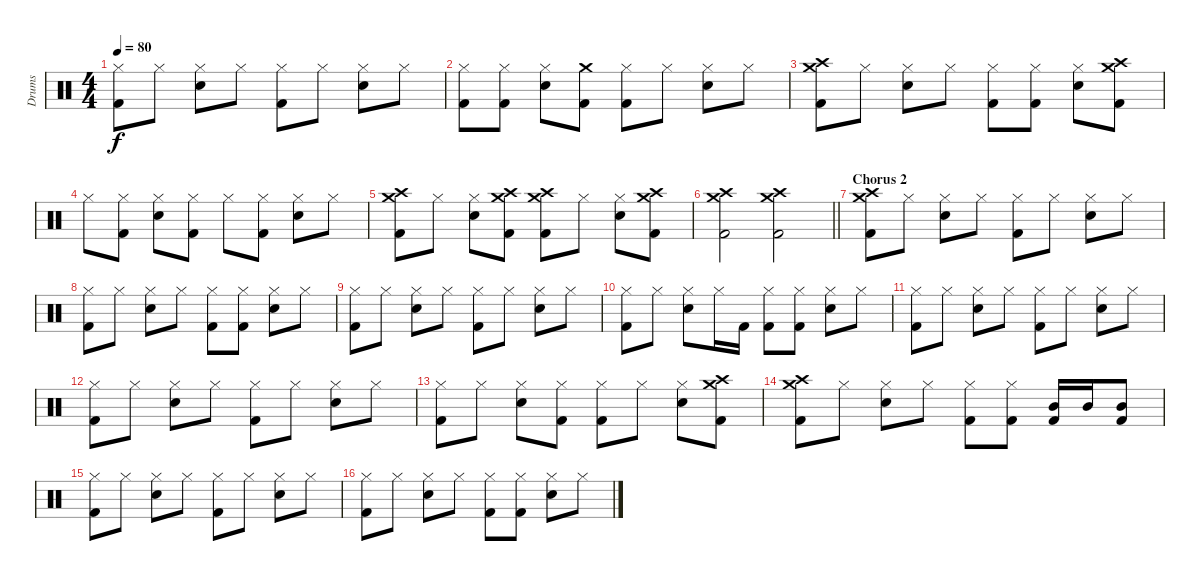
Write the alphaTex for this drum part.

\track ("Drums" "Drums") {instrument percussion}
\staff {score}
\articulation defaults
\ts (4 4)
\tempo 80
\clef neutral
\ks c
("Hi-Hat (closed)" "Kick (hit) 2").8{dy f} "Hi-Hat (closed)".8 ("Hi-Hat (closed)" "Snare (hit) 2").8 "Hi-Hat (closed)".8 ("Hi-Hat (closed)" "Kick (hit) 2").8 "Hi-Hat (closed)".8 ("Hi-Hat (closed)" "Snare (hit) 2").8 "Hi-Hat (closed)".8 |
("Hi-Hat (closed)" "Kick (hit) 2").8 ("Hi-Hat (closed)" "Kick (hit) 2").8 ("Hi-Hat (closed)" "Snare (hit) 2").8 ("Crash medium (hit)" "Kick (hit) 2").8 ("Hi-Hat (closed)" "Kick (hit) 2").8 "Hi-Hat (closed)".8 ("Hi-Hat (closed)" "Snare (hit) 2").8 "Hi-Hat (closed)".8 |
("Crash medium (hit)" "Crash high (hit)" "Kick (hit) 2").8 "Hi-Hat (closed)".8 ("Hi-Hat (closed)" "Snare (hit) 2").8 "Hi-Hat (closed)".8 ("Hi-Hat (closed)" "Kick (hit) 2").8 ("Hi-Hat (closed)" "Kick (hit) 2").8 ("Hi-Hat (closed)" "Snare (hit) 2").8 ("Crash medium (hit)" "Crash high (hit)" "Kick (hit) 2").8 |
"Hi-Hat (closed)".8 ("Hi-Hat (closed)" "Kick (hit) 2").8 ("Hi-Hat (closed)" "Snare (hit) 2").8 ("Hi-Hat (closed)" "Kick (hit) 2").8 "Hi-Hat (closed)".8 ("Hi-Hat (closed)" "Kick (hit) 2").8 ("Hi-Hat (closed)" "Snare (hit) 2").8 "Hi-Hat (closed)".8 |
("Crash medium (hit)" "Crash high (hit)" "Kick (hit) 2").8 "Hi-Hat (closed)".8 ("Hi-Hat (closed)" "Snare (hit) 2").8 ("Crash medium (hit)" "Crash high (hit)" "Kick (hit) 2").8 ("Crash medium (hit)" "Crash high (hit)" "Kick (hit) 2").8 "Hi-Hat (closed)".8 ("Hi-Hat (closed)" "Snare (hit) 2").8 ("Crash medium (hit)" "Crash high (hit)" "Kick (hit) 2").8 |
\barLineRight lightlight
("Crash medium (hit)" "Crash high (hit)" "Kick (hit) 2").2 ("Crash medium (hit)" "Crash high (hit)" "Kick (hit) 2").2 |
\section ("" "Chorus 2")
("Crash medium (hit)" "Crash high (hit)" "Kick (hit) 2").8 "Hi-Hat (closed)".8 ("Hi-Hat (closed)" "Snare (hit) 2").8 "Hi-Hat (closed)".8 ("Hi-Hat (closed)" "Kick (hit) 2").8 "Hi-Hat (closed)".8 ("Hi-Hat (closed)" "Snare (hit) 2").8 "Hi-Hat (closed)".8 |
("Hi-Hat (closed)" "Kick (hit) 2").8 "Hi-Hat (closed)".8 ("Hi-Hat (closed)" "Snare (hit) 2").8 "Hi-Hat (closed)".8 ("Hi-Hat (closed)" "Kick (hit) 2").8 ("Hi-Hat (closed)" "Kick (hit) 2").8 ("Hi-Hat (closed)" "Snare (hit) 2").8 "Hi-Hat (closed)".8 |
("Hi-Hat (closed)" "Kick (hit) 2").8 "Hi-Hat (closed)".8 ("Hi-Hat (closed)" "Snare (hit) 2").8 "Hi-Hat (closed)".8 ("Hi-Hat (closed)" "Kick (hit) 2").8 "Hi-Hat (closed)".8 ("Hi-Hat (closed)" "Snare (hit) 2").8 "Hi-Hat (closed)".8 |
("Hi-Hat (closed)" "Kick (hit) 2").8 "Hi-Hat (closed)".8 ("Hi-Hat (closed)" "Snare (hit) 2").8 "Hi-Hat (closed)".16 "Kick (hit) 2".16 ("Hi-Hat (closed)" "Kick (hit) 2").8 ("Hi-Hat (closed)" "Kick (hit) 2").8 ("Hi-Hat (closed)" "Snare (hit) 2").8 "Hi-Hat (closed)".8 |
("Hi-Hat (closed)" "Kick (hit) 2").8 "Hi-Hat (closed)".8 ("Hi-Hat (closed)" "Snare (hit) 2").8 "Hi-Hat (closed)".8 ("Hi-Hat (closed)" "Kick (hit) 2").8 "Hi-Hat (closed)".8 ("Hi-Hat (closed)" "Snare (hit) 2").8 "Hi-Hat (closed)".8 |
("Hi-Hat (closed)" "Kick (hit) 2").8 "Hi-Hat (closed)".8 ("Hi-Hat (closed)" "Snare (hit) 2").8 "Hi-Hat (closed)".8 ("Hi-Hat (closed)" "Kick (hit) 2").8 "Hi-Hat (closed)".8 ("Hi-Hat (closed)" "Snare (hit) 2").8 "Hi-Hat (closed)".8 |
("Hi-Hat (closed)" "Kick (hit) 2").8 "Hi-Hat (closed)".8 ("Hi-Hat (closed)" "Snare (hit) 2").8 ("Hi-Hat (closed)" "Kick (hit) 2").8 ("Hi-Hat (closed)" "Kick (hit) 2").8 "Hi-Hat (closed)".8 ("Hi-Hat (closed)" "Snare (hit) 2").8 ("Crash medium (hit)" "Crash high (hit)" "Kick (hit) 2").8 |
("Crash medium (hit)" "Crash high (hit)" "Kick (hit) 2").8 "Hi-Hat (closed)".8 ("Hi-Hat (closed)" "Snare (hit) 2").8 "Hi-Hat (closed)".8 ("Hi-Hat (closed)" "Kick (hit) 2").8 ("Hi-Hat (closed)" "Kick (hit) 2").8 ("Mid Tom (hit)" "Kick (hit) 2").16 "Mid Tom (hit)".16 ("Mid Tom (hit)" "Kick (hit) 2").8 |
("Hi-Hat (closed)" "Kick (hit) 2").8 "Hi-Hat (closed)".8 ("Hi-Hat (closed)" "Snare (hit) 2").8 "Hi-Hat (closed)".8 ("Hi-Hat (closed)" "Kick (hit) 2").8 "Hi-Hat (closed)".8 ("Hi-Hat (closed)" "Snare (hit) 2").8 "Hi-Hat (closed)".8 |
("Hi-Hat (closed)" "Kick (hit) 2").8 "Hi-Hat (closed)".8 ("Hi-Hat (closed)" "Snare (hit) 2").8 "Hi-Hat (closed)".8 ("Hi-Hat (closed)" "Kick (hit) 2").8 ("Hi-Hat (closed)" "Kick (hit) 2").8 ("Hi-Hat (closed)" "Snare (hit) 2").8 "Hi-Hat (closed)".8
